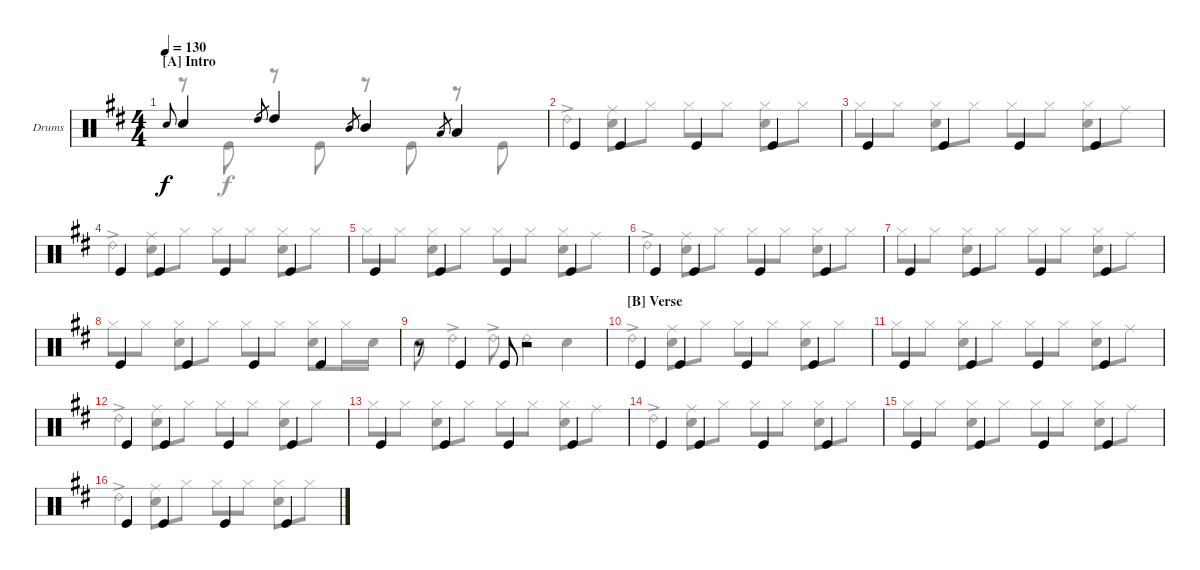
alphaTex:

\bracketExtendMode groupsimilarinstruments
\firstSystemTrackNameOrientation horizontal
\otherSystemsTrackNameOrientation horizontal
\track ("Drumkit" "Drums") {instrument percussion}
\staff {score}
\articulation defaults
\voice
\ts (4 4)
\section ("A" "Intro")
\tempo 130
\clef neutral
\scale
1.08071
\ks d "Snare (hit) 2".8{gr onbeat dy f} "Snare (hit) 2".4 "High Tom (hit)".8{gr} "High Tom (hit)".4 "Mid Tom (hit)".8{gr} "Mid Tom (hit)".4 "Low Tom (hit)".8{gr} "Low Tom (hit)".4
|
\scale
0.919294 "Kick (hit)".4 "Kick (hit)".4 "Kick (hit)".4 "Kick (hit)".4 |
\scale
1.05044 "Kick (hit)".4 "Kick (hit)".4 "Kick (hit)".4 "Kick (hit)".4 |
\scale
0.949559 "Kick (hit)".4 "Kick (hit)".4 "Kick (hit)".4 "Kick (hit)".4 |
\scale
1.05044 "Kick (hit)".4 "Kick (hit)".4 "Kick (hit)".4 "Kick (hit)".4 |
\scale
0.949559 "Kick (hit)".4 "Kick (hit)".4 "Kick (hit)".4 "Kick (hit)".4 |
\scale
1.05044 "Kick (hit)".4 "Kick (hit)".4 "Kick (hit)".4 "Kick (hit)".4 |
\scale
0.949559 "Kick (hit)".4 "Kick (hit)".4 "Kick (hit)".4 "Kick (hit)".4 |
\scale
1.05044 r.8 "Kick (hit)".4 "Kick (hit)".8 r.2 |
\section ("B" "Verse")
\scale
0.949559 "Kick (hit)".4 "Kick (hit)".4 "Kick (hit)".4 "Kick (hit)".4 |
\scale
1.05044 "Kick (hit)".4 "Kick (hit)".4 "Kick (hit)".4 "Kick (hit)".4 |
\scale
0.949559 "Kick (hit)".4 "Kick (hit)".4 "Kick (hit)".4 "Kick (hit)".4 |
\scale
1.05044 "Kick (hit)".4 "Kick (hit)".4 "Kick (hit)".4 "Kick (hit)".4 |
\scale
0.949559 "Kick (hit)".4 "Kick (hit)".4 "Kick (hit)".4 "Kick (hit)".4 |
\scale
1.05044 "Kick (hit)".4 "Kick (hit)".4 "Kick (hit)".4 "Kick (hit)".4 |
\scale
0.949559 "Kick (hit)".4 "Kick (hit)".4 "Kick (hit)".4 "Kick (hit)".4
\voice
\clef neutral
\ottava regular
\simile none
\scale
1.08071
\ks d
r.8{dy f} "Kick (hit)".8 r.8 "Kick (hit)".8 r.8 "Kick (hit)".8 r.8 "Kick (hit)".8 |
\scale
0.919294 "Ride (bell) 2"{ac}.4 ("Snare (hit) 2" "Ride (middle)").8 "Hi-Hat (closed)".8 "Hi-Hat (closed)".8 "Hi-Hat (closed)".8 ("Hi-Hat (closed)" "Snare (hit) 2").8 "Hi-Hat (closed)".8 |
\scale
1.05044 "Hi-Hat (closed)".8 "Hi-Hat (closed)".8 ("Hi-Hat (closed)" "Snare (hit) 2").8 "Hi-Hat (closed)".8 "Hi-Hat (closed)".8 "Hi-Hat (closed)".8 ("Hi-Hat (closed)" "Snare (hit) 2").8 "Ride (middle)".8 |
\scale
0.949559 "Ride (bell) 2"{ac}.4 ("Snare (hit) 2" "Ride (middle)").8 "Hi-Hat (closed)".8 "Hi-Hat (closed)".8 "Hi-Hat (closed)".8 ("Hi-Hat (closed)" "Snare (hit) 2").8 "Hi-Hat (closed)".8 |
\scale
1.05044 "Hi-Hat (closed)".8 "Hi-Hat (closed)".8 ("Hi-Hat (closed)" "Snare (hit) 2").8 "Hi-Hat (closed)".8 "Hi-Hat (closed)".8 "Hi-Hat (closed)".8 ("Hi-Hat (closed)" "Snare (hit) 2").8 "Ride (middle)".8 |
\scale
0.949559 "Ride (bell) 2"{ac}.4 ("Snare (hit) 2" "Ride (middle)").8 "Hi-Hat (closed)".8 "Hi-Hat (closed)".8 "Hi-Hat (closed)".8 ("Hi-Hat (closed)" "Snare (hit) 2").8 "Hi-Hat (closed)".8 |
\scale
1.05044 "Hi-Hat (closed)".8 "Hi-Hat (closed)".8 ("Hi-Hat (closed)" "Snare (hit) 2").8 "Hi-Hat (closed)".8 "Hi-Hat (closed)".8 "Hi-Hat (closed)".8 ("Hi-Hat (closed)" "Snare (hit) 2").8 "Ride (middle)".8 |
\scale
0.949559 "Hi-Hat (closed)".8 "Hi-Hat (closed)".8 ("Hi-Hat (closed)" "Snare (hit) 2").8 "Hi-Hat (closed)".8 "Hi-Hat (closed)".8 "Hi-Hat (closed)".8 ("Hi-Hat (closed)" "Snare (hit) 2").8 "Hi-Hat (closed)".16 "Snare (hit) 2".16 |
\scale
1.05044 "Snare (hit) 2".8 "Ride (bell) 2"{ac}.4 "Ride (bell) 2"{ac}.8 "Ride (bell) 2".4 "Snare (hit) 2".4 |
\scale
0.949559 "Ride (bell) 2"{ac}.4 ("Snare (hit) 2" "Ride (middle)").8 "Hi-Hat (closed)".8 "Hi-Hat (closed)".8 "Hi-Hat (closed)".8 ("Hi-Hat (closed)" "Snare (hit) 2").8 "Hi-Hat (closed)".8 |
\scale
1.05044 "Hi-Hat (closed)".8 "Hi-Hat (closed)".8 ("Hi-Hat (closed)" "Snare (hit) 2").8 "Hi-Hat (closed)".8 "Hi-Hat (closed)".8 "Hi-Hat (closed)".8 ("Hi-Hat (closed)" "Snare (hit) 2").8 "Ride (middle)".8 |
\scale
0.949559 "Ride (bell) 2"{ac}.4 ("Snare (hit) 2" "Ride (middle)").8 "Hi-Hat (closed)".8 "Hi-Hat (closed)".8 "Hi-Hat (closed)".8 ("Hi-Hat (closed)" "Snare (hit) 2").8 "Hi-Hat (closed)".8 |
\scale
1.05044 "Hi-Hat (closed)".8 "Hi-Hat (closed)".8 ("Hi-Hat (closed)" "Snare (hit) 2").8 "Hi-Hat (closed)".8 "Hi-Hat (closed)".8 "Hi-Hat (closed)".8 ("Hi-Hat (closed)" "Snare (hit) 2").8 "Ride (middle)".8 |
\scale
0.949559 "Ride (bell) 2"{ac}.4 ("Snare (hit) 2" "Ride (middle)").8 "Hi-Hat (closed)".8 "Hi-Hat (closed)".8 "Hi-Hat (closed)".8 ("Hi-Hat (closed)" "Snare (hit) 2").8 "Hi-Hat (closed)".8 |
\scale
1.05044 "Hi-Hat (closed)".8 "Hi-Hat (closed)".8 ("Hi-Hat (closed)" "Snare (hit) 2").8 "Hi-Hat (closed)".8 "Hi-Hat (closed)".8 "Hi-Hat (closed)".8 ("Hi-Hat (closed)" "Snare (hit) 2").8 "Ride (middle)".8 |
\scale
0.949559 "Ride (bell) 2"{ac}.4 ("Snare (hit) 2" "Ride (middle)").8 "Hi-Hat (closed)".8 "Hi-Hat (closed)".8 "Hi-Hat (closed)".8 ("Hi-Hat (closed)" "Snare (hit) 2").8 "Hi-Hat (closed)".8
